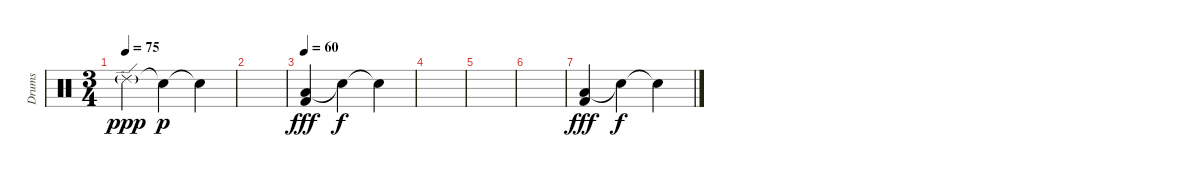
\track ("Drums" "Drums") {instrument percussion}
\staff {score}
\articulation defaults
\ts (3 4)
\tempo 75
\clef neutral
\ks c "Ride (edge) 2"{g}.4{dy ppp} "Snare (hit)"{t}.4{dy p} "Snare (hit)"{t}.4
|
|
\tempo 60
("Low Tom (hit)" "Kick (hit) 2").4{dy fff} "Snare (hit)"{t}.4{dy f} "Snare (hit)"{t}.4 |
|
|
|
("Low Tom (hit)" "Kick (hit) 2").4{dy fff} "Snare (hit)"{t}.4{dy f} "Snare (hit)"{t}.4
